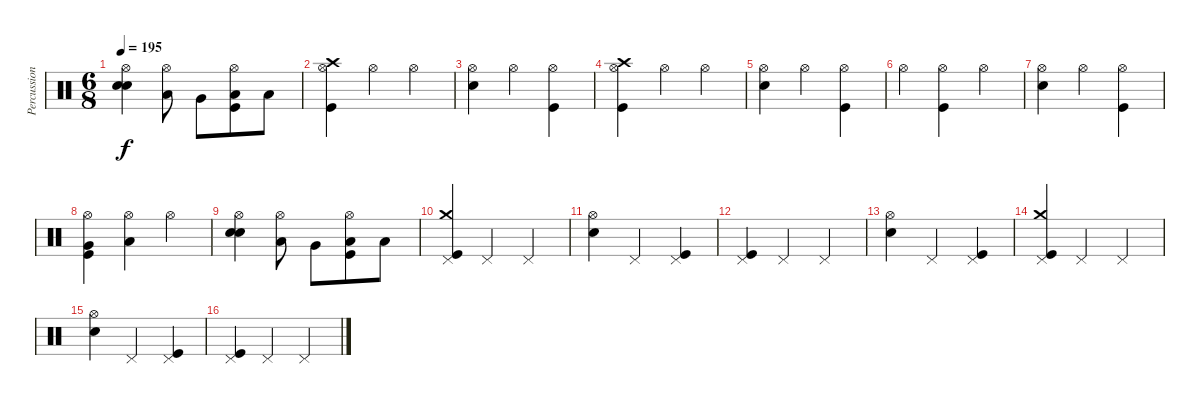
\track ("Percussion" "Percussion") {instrument percussion}
\staff {score}
\articulation defaults
\ts (6 8)
\tempo 195
\clef neutral
\ks c
("Electric Snare (hit)" "Hi-Hat (open)" "Electric Snare (hit)").4{dy f} ("Low Tom (hit)" "Hi-Hat (open)").8 "Very Low Tom (hit)".8 ("Low Floor Tom (hit)" "Hi-Hat (open)" "Kick (hit)").8 "Low Floor Tom (hit)".8 |
("Crash high (hit)" "Hi-Hat (open)" "Kick (hit)").4 "Hi-Hat (open)".4 "Hi-Hat (open)".4 |
("Hi-Hat (open)" "Electric Snare (hit)").4 "Hi-Hat (open)".4 ("Hi-Hat (open)" "Kick (hit)").4 |
("Crash high (hit)" "Hi-Hat (open)" "Kick (hit)").4 "Hi-Hat (open)".4 "Hi-Hat (open)".4 |
("Hi-Hat (open)" "Electric Snare (hit)").4 "Hi-Hat (open)".4 ("Hi-Hat (open)" "Kick (hit)").4 |
"Hi-Hat (open)".4 ("Hi-Hat (open)" "Kick (hit)").4 "Hi-Hat (open)".4 |
("Hi-Hat (open)" "Electric Snare (hit)").4 "Hi-Hat (open)".4 ("Hi-Hat (open)" "Kick (hit)").4 |
("Very Low Tom (hit)" "Hi-Hat (open)" "Kick (hit)").4 ("Low Floor Tom (hit)" "Hi-Hat (open)").4 "Hi-Hat (open)".4 |
("Electric Snare (hit)" "Hi-Hat (open)" "Electric Snare (hit)").4 ("Low Tom (hit)" "Hi-Hat (open)").8 "Very Low Tom (hit)".8 ("Low Floor Tom (hit)" "Hi-Hat (open)" "Kick (hit)").8 "Low Floor Tom (hit)".8 |
("Crash medium (hit)" "Pedal Hi-Hat (hit)" "Kick (hit)").4 "Pedal Hi-Hat (hit)".4 "Pedal Hi-Hat (hit)".4 |
("Hi-Hat (open)" "Electric Snare (hit)").4 "Pedal Hi-Hat (hit)".4 ("Pedal Hi-Hat (hit)" "Kick (hit)").4 |
("Pedal Hi-Hat (hit)" "Kick (hit)").4 "Pedal Hi-Hat (hit)".4 "Pedal Hi-Hat (hit)".4 |
("Hi-Hat (open)" "Electric Snare (hit)").4 "Pedal Hi-Hat (hit)".4 ("Pedal Hi-Hat (hit)" "Kick (hit)").4 |
("Crash medium (hit)" "Pedal Hi-Hat (hit)" "Kick (hit)").4 "Pedal Hi-Hat (hit)".4 "Pedal Hi-Hat (hit)".4 |
("Hi-Hat (open)" "Electric Snare (hit)").4 "Pedal Hi-Hat (hit)".4 ("Pedal Hi-Hat (hit)" "Kick (hit)").4 |
("Pedal Hi-Hat (hit)" "Kick (hit)").4 "Pedal Hi-Hat (hit)".4 "Pedal Hi-Hat (hit)".4
